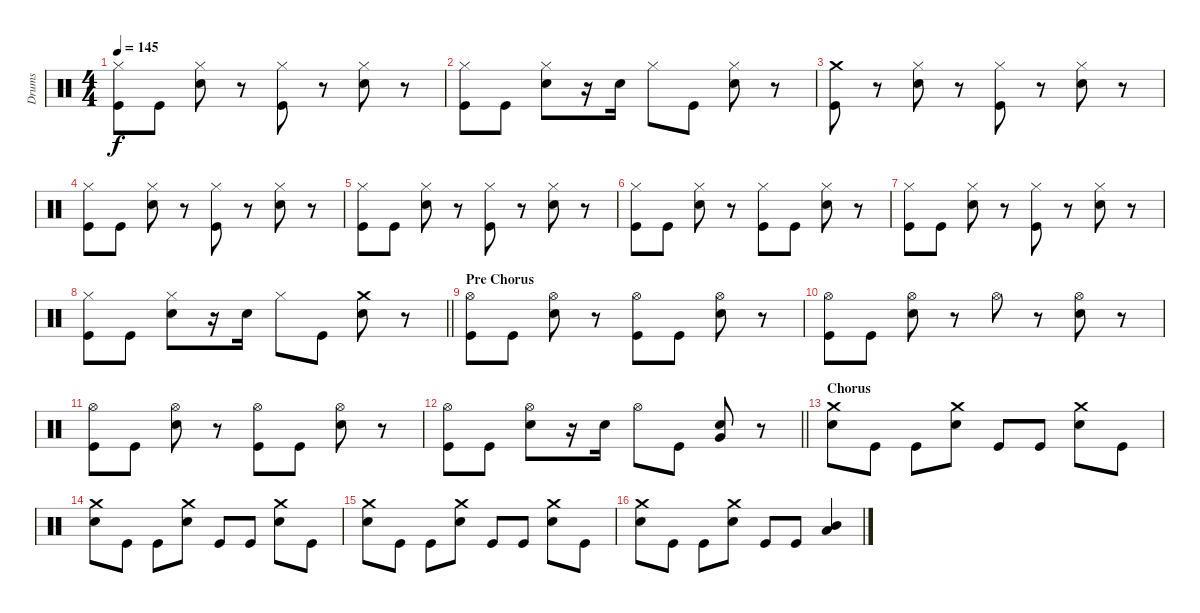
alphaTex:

\track ("Drums" "Drums") {instrument percussion}
\staff {score}
\articulation defaults
\ts (4 4)
\tempo 145
\clef neutral
\ks c
("Hi-Hat (closed)" "Kick (hit)").8{dy f} "Kick (hit)".8 ("Hi-Hat (closed)" "Snare (hit) 2").8 r.8 ("Hi-Hat (closed)" "Kick (hit)").8 r.8 ("Hi-Hat (closed)" "Snare (hit) 2").8 r.8 |
("Hi-Hat (closed)" "Kick (hit)").8 "Kick (hit)".8 ("Hi-Hat (closed)" "Snare (hit) 2").8 r.16 "Snare (hit) 2".16 "Hi-Hat (closed)".8 "Kick (hit)".8 ("Hi-Hat (closed)" "Snare (hit) 2").8 r.8 |
("Crash medium (hit)" "Kick (hit)").8 r.8 ("Hi-Hat (closed)" "Snare (hit) 2").8 r.8 ("Hi-Hat (closed)" "Kick (hit)").8 r.8 ("Hi-Hat (closed)" "Snare (hit) 2").8 r.8 |
("Hi-Hat (closed)" "Kick (hit)").8 "Kick (hit)".8 ("Hi-Hat (closed)" "Snare (hit) 2").8 r.8 ("Hi-Hat (closed)" "Kick (hit)").8 r.8 ("Hi-Hat (closed)" "Snare (hit) 2").8 r.8 |
("Hi-Hat (closed)" "Kick (hit)").8 "Kick (hit)".8 ("Hi-Hat (closed)" "Snare (hit) 2").8 r.8 ("Hi-Hat (closed)" "Kick (hit)").8 r.8 ("Hi-Hat (closed)" "Snare (hit) 2").8 r.8 |
("Hi-Hat (closed)" "Kick (hit)").8 "Kick (hit)".8 ("Hi-Hat (closed)" "Snare (hit) 2").8 r.8 ("Hi-Hat (closed)" "Kick (hit)").8 "Kick (hit)".8 ("Hi-Hat (closed)" "Snare (hit) 2").8 r.8 |
("Hi-Hat (closed)" "Kick (hit)").8 "Kick (hit)".8 ("Hi-Hat (closed)" "Snare (hit) 2").8 r.8 ("Hi-Hat (closed)" "Kick (hit)").8 r.8 ("Hi-Hat (closed)" "Snare (hit) 2").8 r.8 |
\barLineRight lightlight
("Hi-Hat (closed)" "Kick (hit)").8 "Kick (hit)".8 ("Hi-Hat (closed)" "Snare (hit) 2").8 r.16 "Snare (hit) 2".16 "Hi-Hat (closed)".8 "Kick (hit)".8 ("Crash medium (hit)" "Snare (hit) 2").8 r.8 |
\section ("" "Pre Chorus")
("Hi-Hat (open)" "Kick (hit)").8 "Kick (hit)".8 ("Hi-Hat (open)" "Snare (hit) 2").8 r.8 ("Hi-Hat (open)" "Kick (hit)").8 "Kick (hit)".8 ("Hi-Hat (open)" "Snare (hit) 2").8 r.8 |
("Hi-Hat (open)" "Kick (hit)").8 "Kick (hit)".8 ("Hi-Hat (open)" "Snare (hit) 2").8 r.8 "Hi-Hat (open)".8 r.8 ("Hi-Hat (open)" "Snare (hit) 2").8 r.8 |
("Hi-Hat (open)" "Kick (hit)").8 "Kick (hit)".8 ("Hi-Hat (open)" "Snare (hit) 2").8 r.8 ("Hi-Hat (open)" "Kick (hit)").8 "Kick (hit)".8 ("Hi-Hat (open)" "Snare (hit) 2").8 r.8 |
\barLineRight lightlight
("Hi-Hat (open)" "Kick (hit)").8 "Kick (hit)".8 ("Hi-Hat (open)" "Snare (hit) 2").8 r.16 "Snare (hit) 2".16 "Hi-Hat (open)".8 "Kick (hit)".8 ("Very Low Tom (hit)" "Snare (hit) 2").8 r.8 |
\section ("" "Chorus")
("Crash medium (hit)" "Snare (hit) 2").8 "Kick (hit)".8 "Kick (hit)".8 ("Crash medium (hit)" "Snare (hit) 2").8 "Kick (hit)".8 "Kick (hit)".8 ("Crash medium (hit)" "Snare (hit) 2").8 "Kick (hit)".8 |
("Crash medium (hit)" "Snare (hit) 2").8 "Kick (hit)".8 "Kick (hit)".8 ("Crash medium (hit)" "Snare (hit) 2").8 "Kick (hit)".8 "Kick (hit)".8 ("Crash medium (hit)" "Snare (hit) 2").8 "Kick (hit)".8 |
("Crash medium (hit)" "Snare (hit) 2").8 "Kick (hit)".8 "Kick (hit)".8 ("Crash medium (hit)" "Snare (hit) 2").8 "Kick (hit)".8 "Kick (hit)".8 ("Crash medium (hit)" "Snare (hit) 2").8 "Kick (hit)".8 |
("Crash medium (hit)" "Snare (hit) 2").8 "Kick (hit)".8 "Kick (hit)".8 ("Crash medium (hit)" "Snare (hit) 2").8 "Kick (hit)".8 "Kick (hit)".8 ("Mid Tom (hit)" "Low Tom (hit)").4
